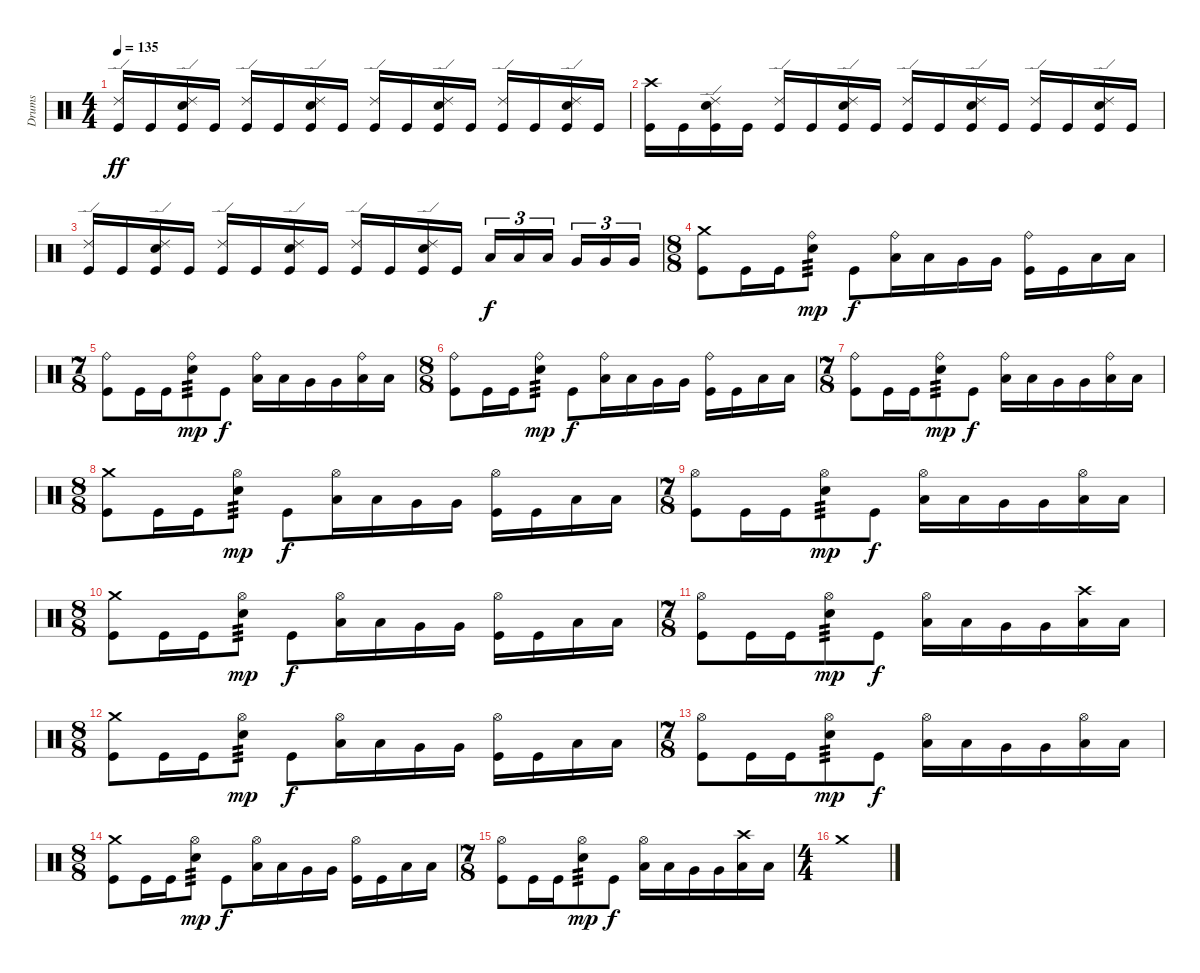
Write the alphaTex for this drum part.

\track ("Drums" "Drums") {instrument percussion}
\staff {score}
\articulation defaults
\ts (4 4)
\tempo 135
\clef neutral
\ks c
("Ride (edge) 2" "Kick (hit)").16{dy ff} "Kick (hit)".16 ("Ride (edge) 2" "Electric Snare (hit)" "Kick (hit)").16 "Kick (hit)".16 ("Ride (edge) 2" "Kick (hit)").16 "Kick (hit)".16 ("Ride (edge) 2" "Electric Snare (hit)" "Kick (hit)").16 "Kick (hit)".16 ("Ride (edge) 2" "Kick (hit)").16 "Kick (hit)".16 ("Ride (edge) 2" "Electric Snare (hit)" "Kick (hit)").16 "Kick (hit)".16 ("Ride (edge) 2" "Kick (hit)").16 "Kick (hit)".16 ("Ride (edge) 2" "Electric Snare (hit)" "Kick (hit)").16 "Kick (hit)".16 |
("Crash high (hit)" "Kick (hit)").16 "Kick (hit)".16 ("Ride (edge) 2" "Electric Snare (hit)" "Kick (hit)").16 "Kick (hit)".16 ("Ride (edge) 2" "Kick (hit)").16 "Kick (hit)".16 ("Ride (edge) 2" "Electric Snare (hit)" "Kick (hit)").16 "Kick (hit)".16 ("Ride (edge) 2" "Kick (hit)").16 "Kick (hit)".16 ("Ride (edge) 2" "Electric Snare (hit)" "Kick (hit)").16 "Kick (hit)".16 ("Ride (edge) 2" "Kick (hit)").16 "Kick (hit)".16 ("Ride (edge) 2" "Electric Snare (hit)" "Kick (hit)").16 "Kick (hit)".16 |
("Ride (edge) 2" "Kick (hit)").16 "Kick (hit)".16 ("Ride (edge) 2" "Electric Snare (hit)" "Kick (hit)").16 "Kick (hit)".16 ("Ride (edge) 2" "Kick (hit)").16 "Kick (hit)".16 ("Ride (edge) 2" "Electric Snare (hit)" "Kick (hit)").16 "Kick (hit)".16 ("Ride (edge) 2" "Kick (hit)").16 "Kick (hit)".16 ("Ride (edge) 2" "Electric Snare (hit)" "Kick (hit)").16 "Kick (hit)".16 "Low Tom (hit)".16{tu (3 2) dy f} "Low Tom (hit)".16{tu (3 2)} "Low Tom (hit)".16{tu (3 2)} "Very Low Tom (hit)".16{tu (3 2)} "Very Low Tom (hit)".16{tu (3 2)} "Very Low Tom (hit)".16{tu (3 2)} |
\ts (8 8)
("Crash medium (hit)" "Kick (hit)").8 "Kick (hit)".16 "Kick (hit)".16 ("Ride (bell)" "Electric Snare (hit)").8{tp 3 dy mp} "Kick (hit)".8{dy f} ("Ride (bell)" "Low Tom (hit)").16 "Low Tom (hit)".16 "Very Low Tom (hit)".16 "Very Low Tom (hit)".16 ("Ride (bell)" "Kick (hit)").16 "Kick (hit)".16 "Low Tom (hit)".16 "Low Tom (hit)".16 |
\ts (7 8)
("Ride (bell)" "Kick (hit)").8 "Kick (hit)".16 "Kick (hit)".16 ("Ride (bell)" "Electric Snare (hit)").8{tp 3 dy mp} "Kick (hit)".8{dy f} ("Ride (bell)" "Low Tom (hit)").16 "Low Tom (hit)".16 "Very Low Tom (hit)".16 "Very Low Tom (hit)".16 ("Ride (bell)" "Low Tom (hit)").16 "Low Tom (hit)".16 |
\ts (8 8)
("Ride (bell)" "Kick (hit)").8 "Kick (hit)".16 "Kick (hit)".16 ("Ride (bell)" "Electric Snare (hit)").8{tp 3 dy mp} "Kick (hit)".8{dy f} ("Ride (bell)" "Low Tom (hit)").16 "Low Tom (hit)".16 "Very Low Tom (hit)".16 "Very Low Tom (hit)".16 ("Ride (bell)" "Kick (hit)").16 "Kick (hit)".16 "Low Tom (hit)".16 "Low Tom (hit)".16 |
\ts (7 8)
("Ride (bell)" "Kick (hit)").8 "Kick (hit)".16 "Kick (hit)".16 ("Ride (bell)" "Electric Snare (hit)").8{tp 3 dy mp} "Kick (hit)".8{dy f} ("Ride (bell)" "Low Tom (hit)").16 "Low Tom (hit)".16 "Very Low Tom (hit)".16 "Very Low Tom (hit)".16 ("Ride (bell)" "Low Tom (hit)").16 "Low Tom (hit)".16 |
\ts (8 8)
("Crash medium (hit)" "Kick (hit)").8 "Kick (hit)".16 "Kick (hit)".16 ("Hi-Hat (open)" "Electric Snare (hit)").8{tp 3 dy mp} "Kick (hit)".8{dy f} ("Hi-Hat (open)" "Low Tom (hit)").16 "Low Tom (hit)".16 "Very Low Tom (hit)".16 "Very Low Tom (hit)".16 ("Hi-Hat (open)" "Kick (hit)").16 "Kick (hit)".16 "Low Tom (hit)".16 "Low Tom (hit)".16 |
\ts (7 8)
("Hi-Hat (open)" "Kick (hit)").8 "Kick (hit)".16 "Kick (hit)".16 ("Hi-Hat (open)" "Electric Snare (hit)").8{tp 3 dy mp} "Kick (hit)".8{dy f} ("Hi-Hat (open)" "Low Tom (hit)").16 "Low Tom (hit)".16 "Very Low Tom (hit)".16 "Very Low Tom (hit)".16 ("Hi-Hat (open)" "Low Tom (hit)").16 "Low Tom (hit)".16 |
\ts (8 8)
("Crash medium (hit)" "Kick (hit)").8 "Kick (hit)".16 "Kick (hit)".16 ("Hi-Hat (open)" "Electric Snare (hit)").8{tp 3 dy mp} "Kick (hit)".8{dy f} ("Hi-Hat (open)" "Low Tom (hit)").16 "Low Tom (hit)".16 "Very Low Tom (hit)".16 "Very Low Tom (hit)".16 ("Hi-Hat (open)" "Kick (hit)").16 "Kick (hit)".16 "Low Tom (hit)".16 "Low Tom (hit)".16 |
\ts (7 8)
("Hi-Hat (open)" "Kick (hit)").8 "Kick (hit)".16 "Kick (hit)".16 ("Hi-Hat (open)" "Electric Snare (hit)").8{tp 3 dy mp} "Kick (hit)".8{dy f} ("Hi-Hat (open)" "Low Tom (hit)").16 "Low Tom (hit)".16 "Very Low Tom (hit)".16 "Very Low Tom (hit)".16 ("Crash high (hit)" "Low Tom (hit)").16 "Low Tom (hit)".16 |
\ts (8 8)
("Crash medium (hit)" "Kick (hit)").8 "Kick (hit)".16 "Kick (hit)".16 ("Hi-Hat (open)" "Electric Snare (hit)").8{tp 3 dy mp} "Kick (hit)".8{dy f} ("Hi-Hat (open)" "Low Tom (hit)").16 "Low Tom (hit)".16 "Very Low Tom (hit)".16 "Very Low Tom (hit)".16 ("Hi-Hat (open)" "Kick (hit)").16 "Kick (hit)".16 "Low Tom (hit)".16 "Low Tom (hit)".16 |
\ts (7 8)
("Hi-Hat (open)" "Kick (hit)").8 "Kick (hit)".16 "Kick (hit)".16 ("Hi-Hat (open)" "Electric Snare (hit)").8{tp 3 dy mp} "Kick (hit)".8{dy f} ("Hi-Hat (open)" "Low Tom (hit)").16 "Low Tom (hit)".16 "Very Low Tom (hit)".16 "Very Low Tom (hit)".16 ("Hi-Hat (open)" "Low Tom (hit)").16 "Low Tom (hit)".16 |
\ts (8 8)
("Crash medium (hit)" "Kick (hit)").8 "Kick (hit)".16 "Kick (hit)".16 ("Hi-Hat (open)" "Electric Snare (hit)").8{tp 3 dy mp} "Kick (hit)".8{dy f} ("Hi-Hat (open)" "Low Tom (hit)").16 "Low Tom (hit)".16 "Very Low Tom (hit)".16 "Very Low Tom (hit)".16 ("Hi-Hat (open)" "Kick (hit)").16 "Kick (hit)".16 "Low Tom (hit)".16 "Low Tom (hit)".16 |
\ts (7 8)
("Hi-Hat (open)" "Kick (hit)").8 "Kick (hit)".16 "Kick (hit)".16 ("Hi-Hat (open)" "Electric Snare (hit)").8{tp 3 dy mp} "Kick (hit)".8{dy f} ("Hi-Hat (open)" "Low Tom (hit)").16 "Low Tom (hit)".16 "Very Low Tom (hit)".16 "Very Low Tom (hit)".16 ("Crash high (hit)" "Low Tom (hit)").16 "Low Tom (hit)".16 |
\ts (4 4)
"Crash medium (hit)".1
